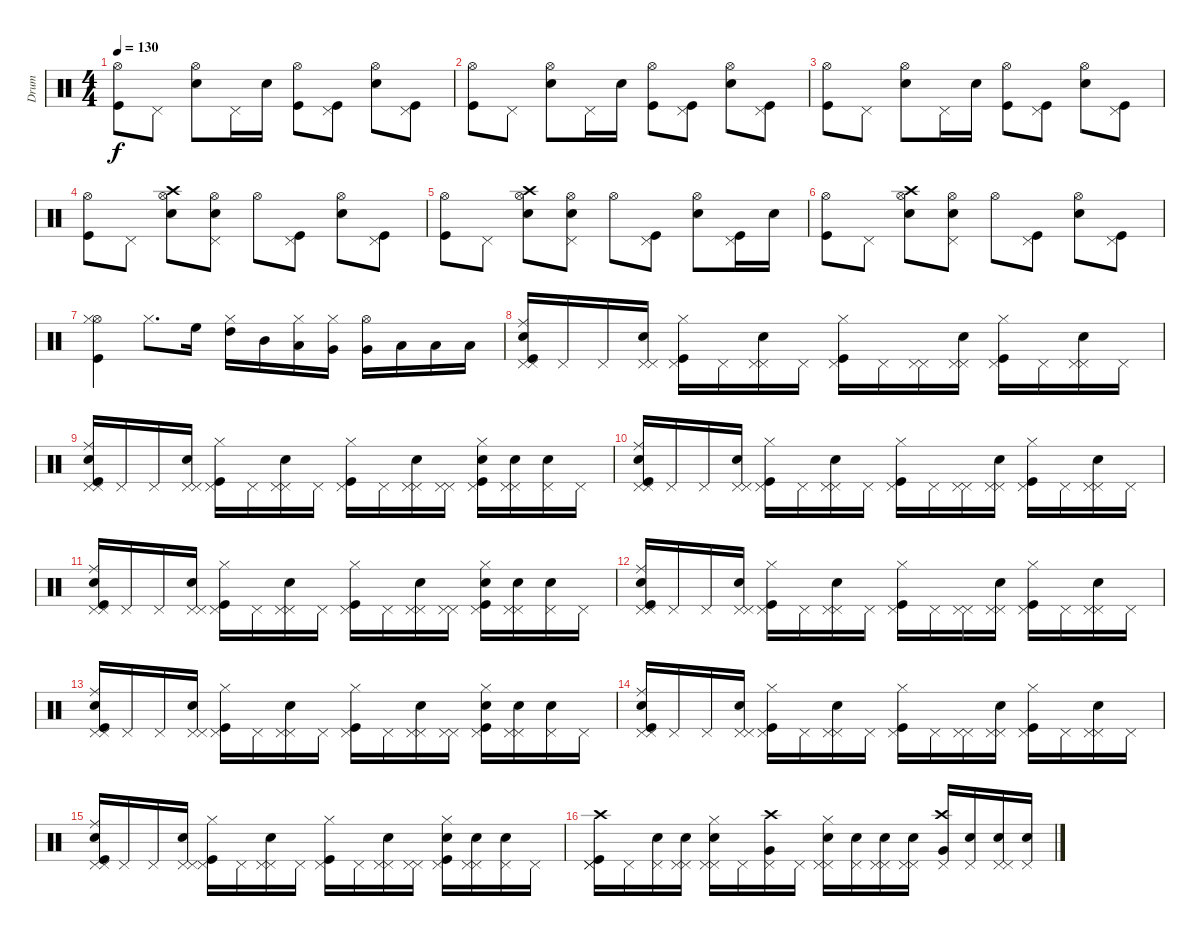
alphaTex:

\track ("Drum" "Drum") {instrument percussion}
\staff {score}
\articulation defaults
\ts (4 4)
\tempo 130
\clef neutral
\ks c
("Kick (hit)" "Hi-Hat (open)").8{dy f} "Pedal Hi-Hat (hit)".8 ("Snare (hit) 2" "Hi-Hat (open)").8 "Pedal Hi-Hat (hit)".16 "Snare (hit) 2".16 ("Kick (hit)" "Hi-Hat (open)").8 ("Kick (hit)" "Pedal Hi-Hat (hit)").8 ("Snare (hit) 2" "Hi-Hat (open)").8 ("Kick (hit)" "Pedal Hi-Hat (hit)").8 |
("Kick (hit)" "Hi-Hat (open)").8 "Pedal Hi-Hat (hit)".8 ("Snare (hit) 2" "Hi-Hat (open)").8 "Pedal Hi-Hat (hit)".16 "Snare (hit) 2".16 ("Kick (hit)" "Hi-Hat (open)").8 ("Kick (hit)" "Pedal Hi-Hat (hit)").8 ("Snare (hit) 2" "Hi-Hat (open)").8 ("Kick (hit)" "Pedal Hi-Hat (hit)").8 |
("Kick (hit)" "Hi-Hat (open)").8 "Pedal Hi-Hat (hit)".8 ("Snare (hit) 2" "Hi-Hat (open)").8 "Pedal Hi-Hat (hit)".16 "Snare (hit) 2".16 ("Kick (hit)" "Hi-Hat (open)").8 ("Kick (hit)" "Pedal Hi-Hat (hit)").8 ("Snare (hit) 2" "Hi-Hat (open)").8 ("Kick (hit)" "Pedal Hi-Hat (hit)").8 |
("Kick (hit)" "Hi-Hat (open)").8 "Pedal Hi-Hat (hit)".8 ("Snare (hit) 2" "Hi-Hat (open)" "Crash high (hit)").8 ("Snare (hit) 2" "Hi-Hat (open)" "Pedal Hi-Hat (hit)").8 "Hi-Hat (open)".8 ("Kick (hit)" "Pedal Hi-Hat (hit)").8 ("Hi-Hat (open)" "Snare (hit) 2").8 ("Kick (hit)" "Pedal Hi-Hat (hit)").8 |
("Kick (hit)" "Hi-Hat (open)").8 "Pedal Hi-Hat (hit)".8 ("Snare (hit) 2" "Hi-Hat (open)" "Crash high (hit)").8 ("Snare (hit) 2" "Hi-Hat (open)" "Pedal Hi-Hat (hit)").8 "Hi-Hat (open)".8 ("Kick (hit)" "Pedal Hi-Hat (hit)").8 ("Hi-Hat (open)" "Snare (hit) 2").8 ("Kick (hit)" "Pedal Hi-Hat (hit)").16 "Snare (hit) 2".16 |
("Kick (hit)" "Hi-Hat (open)").8 "Pedal Hi-Hat (hit)".8 ("Snare (hit) 2" "Hi-Hat (open)" "Crash high (hit)").8 ("Snare (hit) 2" "Hi-Hat (open)" "Pedal Hi-Hat (hit)").8 "Hi-Hat (open)".8 ("Kick (hit)" "Pedal Hi-Hat (hit)").8 ("Hi-Hat (open)" "Snare (hit) 2").8 ("Kick (hit)" "Pedal Hi-Hat (hit)").8 |
("Kick (hit)" "Hi-Hat (open)" "Hi-Hat (closed)").4 "Hi-Hat (closed)".8{d} "High Floor Tom (hit)".16 ("High Tom (hit)" "Hi-Hat (closed)").16 "Mid Tom (hit)".16 ("Low Tom (hit)" "Hi-Hat (closed)").16 ("Very Low Tom (hit)" "Hi-Hat (closed)").16 ("Very Low Tom (hit)" "Hi-Hat (open)").16 "Low Floor Tom (hit)".16 "Low Floor Tom (hit)".16 "Low Floor Tom (hit)".16 |
("Kick (hit)" "Snare (hit) 2" "Ride (middle)" "Pedal Hi-Hat (hit)" "Pedal Hi-Hat (hit)").16 "Pedal Hi-Hat (hit)".16 "Pedal Hi-Hat (hit)".16 ("Pedal Hi-Hat (hit)" "Pedal Hi-Hat (hit)" "Snare (hit) 2").16 ("Kick (hit)" "Pedal Hi-Hat (hit)" "Hi-Hat (closed)").16 "Pedal Hi-Hat (hit)".16 ("Pedal Hi-Hat (hit)" "Pedal Hi-Hat (hit)" "Snare (hit) 2").16 "Pedal Hi-Hat (hit)".16 ("Kick (hit)" "Pedal Hi-Hat (hit)" "Hi-Hat (closed)").16 "Pedal Hi-Hat (hit)".16 ("Pedal Hi-Hat (hit)" "Pedal Hi-Hat (hit)").16 ("Pedal Hi-Hat (hit)" "Pedal Hi-Hat (hit)" "Snare (hit) 2").16 ("Kick (hit)" "Pedal Hi-Hat (hit)" "Hi-Hat (closed)").16 "Pedal Hi-Hat (hit)".16 ("Pedal Hi-Hat (hit)" "Pedal Hi-Hat (hit)" "Snare (hit) 2").16 "Pedal Hi-Hat (hit)".16 |
("Kick (hit)" "Snare (hit) 2" "Ride (middle)" "Pedal Hi-Hat (hit)" "Pedal Hi-Hat (hit)").16 "Pedal Hi-Hat (hit)".16 "Pedal Hi-Hat (hit)".16 ("Pedal Hi-Hat (hit)" "Pedal Hi-Hat (hit)" "Snare (hit) 2").16 ("Kick (hit)" "Pedal Hi-Hat (hit)" "Hi-Hat (closed)").16 "Pedal Hi-Hat (hit)".16 ("Pedal Hi-Hat (hit)" "Pedal Hi-Hat (hit)" "Snare (hit) 2").16 "Pedal Hi-Hat (hit)".16 ("Kick (hit)" "Pedal Hi-Hat (hit)" "Hi-Hat (closed)").16 "Pedal Hi-Hat (hit)".16 ("Pedal Hi-Hat (hit)" "Pedal Hi-Hat (hit)" "Snare (hit) 2").16 ("Pedal Hi-Hat (hit)" "Pedal Hi-Hat (hit)").16 ("Pedal Hi-Hat (hit)" "Kick (hit)" "Snare (hit) 2" "Hi-Hat (closed)").16 ("Snare (hit) 2" "Pedal Hi-Hat (hit)" "Pedal Hi-Hat (hit)").16 ("Snare (hit) 2" "Pedal Hi-Hat (hit)").16 "Pedal Hi-Hat (hit)".16 |
("Kick (hit)" "Snare (hit) 2" "Ride (middle)" "Pedal Hi-Hat (hit)" "Pedal Hi-Hat (hit)").16 "Pedal Hi-Hat (hit)".16 "Pedal Hi-Hat (hit)".16 ("Pedal Hi-Hat (hit)" "Pedal Hi-Hat (hit)" "Snare (hit) 2").16 ("Kick (hit)" "Pedal Hi-Hat (hit)" "Hi-Hat (closed)").16 "Pedal Hi-Hat (hit)".16 ("Pedal Hi-Hat (hit)" "Pedal Hi-Hat (hit)" "Snare (hit) 2").16 "Pedal Hi-Hat (hit)".16 ("Kick (hit)" "Pedal Hi-Hat (hit)" "Hi-Hat (closed)").16 "Pedal Hi-Hat (hit)".16 ("Pedal Hi-Hat (hit)" "Pedal Hi-Hat (hit)").16 ("Pedal Hi-Hat (hit)" "Pedal Hi-Hat (hit)" "Snare (hit) 2").16 ("Kick (hit)" "Pedal Hi-Hat (hit)" "Hi-Hat (closed)").16 "Pedal Hi-Hat (hit)".16 ("Pedal Hi-Hat (hit)" "Pedal Hi-Hat (hit)" "Snare (hit) 2").16 "Pedal Hi-Hat (hit)".16 |
("Kick (hit)" "Snare (hit) 2" "Ride (middle)" "Pedal Hi-Hat (hit)" "Pedal Hi-Hat (hit)").16 "Pedal Hi-Hat (hit)".16 "Pedal Hi-Hat (hit)".16 ("Pedal Hi-Hat (hit)" "Pedal Hi-Hat (hit)" "Snare (hit) 2").16 ("Kick (hit)" "Pedal Hi-Hat (hit)" "Hi-Hat (closed)").16 "Pedal Hi-Hat (hit)".16 ("Pedal Hi-Hat (hit)" "Pedal Hi-Hat (hit)" "Snare (hit) 2").16 "Pedal Hi-Hat (hit)".16 ("Kick (hit)" "Pedal Hi-Hat (hit)" "Hi-Hat (closed)").16 "Pedal Hi-Hat (hit)".16 ("Pedal Hi-Hat (hit)" "Pedal Hi-Hat (hit)" "Snare (hit) 2").16 ("Pedal Hi-Hat (hit)" "Pedal Hi-Hat (hit)").16 ("Pedal Hi-Hat (hit)" "Kick (hit)" "Snare (hit) 2" "Hi-Hat (closed)").16 ("Snare (hit) 2" "Pedal Hi-Hat (hit)" "Pedal Hi-Hat (hit)").16 ("Snare (hit) 2" "Pedal Hi-Hat (hit)").16 "Pedal Hi-Hat (hit)".16 |
("Kick (hit)" "Snare (hit) 2" "Ride (middle)" "Pedal Hi-Hat (hit)" "Pedal Hi-Hat (hit)").16 "Pedal Hi-Hat (hit)".16 "Pedal Hi-Hat (hit)".16 ("Pedal Hi-Hat (hit)" "Pedal Hi-Hat (hit)" "Snare (hit) 2").16 ("Kick (hit)" "Pedal Hi-Hat (hit)" "Hi-Hat (closed)").16 "Pedal Hi-Hat (hit)".16 ("Pedal Hi-Hat (hit)" "Pedal Hi-Hat (hit)" "Snare (hit) 2").16 "Pedal Hi-Hat (hit)".16 ("Kick (hit)" "Pedal Hi-Hat (hit)" "Hi-Hat (closed)").16 "Pedal Hi-Hat (hit)".16 ("Pedal Hi-Hat (hit)" "Pedal Hi-Hat (hit)").16 ("Pedal Hi-Hat (hit)" "Pedal Hi-Hat (hit)" "Snare (hit) 2").16 ("Kick (hit)" "Pedal Hi-Hat (hit)" "Hi-Hat (closed)").16 "Pedal Hi-Hat (hit)".16 ("Pedal Hi-Hat (hit)" "Pedal Hi-Hat (hit)" "Snare (hit) 2").16 "Pedal Hi-Hat (hit)".16 |
("Kick (hit)" "Snare (hit) 2" "Ride (middle)" "Pedal Hi-Hat (hit)" "Pedal Hi-Hat (hit)").16 "Pedal Hi-Hat (hit)".16 "Pedal Hi-Hat (hit)".16 ("Pedal Hi-Hat (hit)" "Pedal Hi-Hat (hit)" "Snare (hit) 2").16 ("Kick (hit)" "Pedal Hi-Hat (hit)" "Hi-Hat (closed)").16 "Pedal Hi-Hat (hit)".16 ("Pedal Hi-Hat (hit)" "Pedal Hi-Hat (hit)" "Snare (hit) 2").16 "Pedal Hi-Hat (hit)".16 ("Kick (hit)" "Pedal Hi-Hat (hit)" "Hi-Hat (closed)").16 "Pedal Hi-Hat (hit)".16 ("Pedal Hi-Hat (hit)" "Pedal Hi-Hat (hit)" "Snare (hit) 2").16 ("Pedal Hi-Hat (hit)" "Pedal Hi-Hat (hit)").16 ("Pedal Hi-Hat (hit)" "Kick (hit)" "Snare (hit) 2" "Hi-Hat (closed)").16 ("Snare (hit) 2" "Pedal Hi-Hat (hit)" "Pedal Hi-Hat (hit)").16 ("Snare (hit) 2" "Pedal Hi-Hat (hit)").16 "Pedal Hi-Hat (hit)".16 |
("Kick (hit)" "Snare (hit) 2" "Ride (middle)" "Pedal Hi-Hat (hit)" "Pedal Hi-Hat (hit)").16 "Pedal Hi-Hat (hit)".16 "Pedal Hi-Hat (hit)".16 ("Pedal Hi-Hat (hit)" "Pedal Hi-Hat (hit)" "Snare (hit) 2").16 ("Kick (hit)" "Pedal Hi-Hat (hit)" "Hi-Hat (closed)").16 "Pedal Hi-Hat (hit)".16 ("Pedal Hi-Hat (hit)" "Pedal Hi-Hat (hit)" "Snare (hit) 2").16 "Pedal Hi-Hat (hit)".16 ("Kick (hit)" "Pedal Hi-Hat (hit)" "Hi-Hat (closed)").16 "Pedal Hi-Hat (hit)".16 ("Pedal Hi-Hat (hit)" "Pedal Hi-Hat (hit)").16 ("Pedal Hi-Hat (hit)" "Pedal Hi-Hat (hit)" "Snare (hit) 2").16 ("Kick (hit)" "Pedal Hi-Hat (hit)" "Hi-Hat (closed)").16 "Pedal Hi-Hat (hit)".16 ("Pedal Hi-Hat (hit)" "Pedal Hi-Hat (hit)" "Snare (hit) 2").16 "Pedal Hi-Hat (hit)".16 |
("Kick (hit)" "Snare (hit) 2" "Ride (middle)" "Pedal Hi-Hat (hit)" "Pedal Hi-Hat (hit)").16 "Pedal Hi-Hat (hit)".16 "Pedal Hi-Hat (hit)".16 ("Pedal Hi-Hat (hit)" "Pedal Hi-Hat (hit)" "Snare (hit) 2").16 ("Kick (hit)" "Pedal Hi-Hat (hit)" "Hi-Hat (closed)").16 "Pedal Hi-Hat (hit)".16 ("Pedal Hi-Hat (hit)" "Pedal Hi-Hat (hit)" "Snare (hit) 2").16 "Pedal Hi-Hat (hit)".16 ("Kick (hit)" "Pedal Hi-Hat (hit)" "Hi-Hat (closed)").16 "Pedal Hi-Hat (hit)".16 ("Pedal Hi-Hat (hit)" "Pedal Hi-Hat (hit)" "Snare (hit) 2").16 ("Pedal Hi-Hat (hit)" "Pedal Hi-Hat (hit)").16 ("Pedal Hi-Hat (hit)" "Kick (hit)" "Snare (hit) 2" "Hi-Hat (closed)").16 ("Snare (hit) 2" "Pedal Hi-Hat (hit)" "Pedal Hi-Hat (hit)").16 ("Snare (hit) 2" "Pedal Hi-Hat (hit)").16 "Pedal Hi-Hat (hit)".16 |
("Kick (hit)" "Crash high (hit)" "Pedal Hi-Hat (hit)" "Pedal Hi-Hat (hit)").16 "Pedal Hi-Hat (hit)".16 ("Snare (hit) 2" "Pedal Hi-Hat (hit)").16 ("Pedal Hi-Hat (hit)" "Pedal Hi-Hat (hit)" "Snare (hit) 2").16 ("Snare (hit) 2" "Pedal Hi-Hat (hit)" "Hi-Hat (closed)" "Pedal Hi-Hat (hit)").16 "Pedal Hi-Hat (hit)".16 ("Pedal Hi-Hat (hit)" "Very Low Tom (hit)" "Crash high (hit)").16 "Pedal Hi-Hat (hit)".16 ("Snare (hit) 2" "Pedal Hi-Hat (hit)" "Pedal Hi-Hat (hit)" "Hi-Hat (closed)").16 ("Snare (hit) 2" "Pedal Hi-Hat (hit)").16 ("Snare (hit) 2" "Pedal Hi-Hat (hit)" "Pedal Hi-Hat (hit)").16 ("Snare (hit) 2" "Pedal Hi-Hat (hit)" "Pedal Hi-Hat (hit)").16 ("Very Low Tom (hit)" "Pedal Hi-Hat (hit)" "Crash high (hit)").16 ("Snare (hit) 2" "Pedal Hi-Hat (hit)").16 ("Snare (hit) 2" "Pedal Hi-Hat (hit)" "Pedal Hi-Hat (hit)").16 ("Snare (hit) 2" "Pedal Hi-Hat (hit)").16
